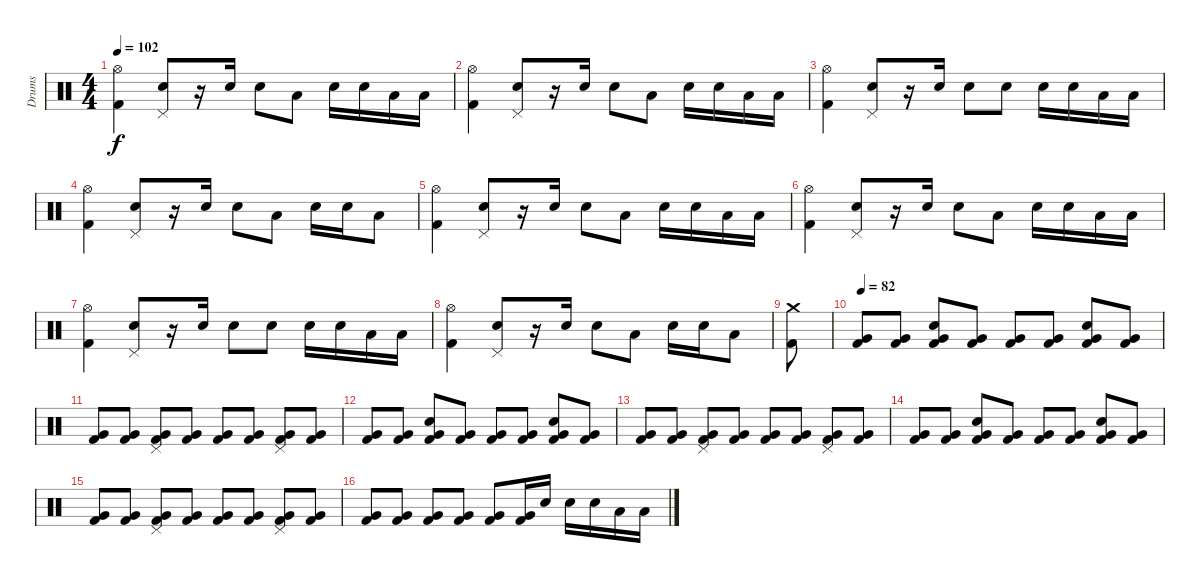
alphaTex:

\track ("Drums" "Drums") {instrument percussion}
\staff {score}
\articulation defaults
\ts (4 4)
\tempo 102
\clef neutral
\ks c
("Hi-Hat (open)" "Kick (hit) 2").4{dy f} ("Pedal Hi-Hat (hit)" "Electric Snare (hit)").8 r.16 "Electric Snare (hit)".16 "Electric Snare (hit)".8 "Low Tom (hit)".8 "Electric Snare (hit)".16 "Electric Snare (hit)".16 "Low Tom (hit)".16 "Low Tom (hit)".16 |
("Hi-Hat (open)" "Kick (hit) 2").4 ("Pedal Hi-Hat (hit)" "Electric Snare (hit)").8 r.16 "Electric Snare (hit)".16 "Electric Snare (hit)".8 "Low Tom (hit)".8 "Electric Snare (hit)".16 "Electric Snare (hit)".16 "Low Tom (hit)".16 "Low Tom (hit)".16 |
("Hi-Hat (open)" "Kick (hit) 2").4 ("Pedal Hi-Hat (hit)" "Electric Snare (hit)").8 r.16 "Electric Snare (hit)".16 "Electric Snare (hit)".8 "Electric Snare (hit)".8 "Electric Snare (hit)".16 "Electric Snare (hit)".16 "Low Tom (hit)".16 "Low Tom (hit)".16 |
("Hi-Hat (open)" "Kick (hit) 2").4 ("Pedal Hi-Hat (hit)" "Electric Snare (hit)").8 r.16 "Electric Snare (hit)".16 "Electric Snare (hit)".8 "Low Tom (hit)".8 "Electric Snare (hit)".16 "Electric Snare (hit)".16 "Low Tom (hit)".8 |
("Hi-Hat (open)" "Kick (hit) 2").4 ("Pedal Hi-Hat (hit)" "Electric Snare (hit)").8 r.16 "Electric Snare (hit)".16 "Electric Snare (hit)".8 "Low Tom (hit)".8 "Electric Snare (hit)".16 "Electric Snare (hit)".16 "Low Tom (hit)".16 "Low Tom (hit)".16 |
("Hi-Hat (open)" "Kick (hit) 2").4 ("Pedal Hi-Hat (hit)" "Electric Snare (hit)").8 r.16 "Electric Snare (hit)".16 "Electric Snare (hit)".8 "Low Tom (hit)".8 "Electric Snare (hit)".16 "Electric Snare (hit)".16 "Low Tom (hit)".16 "Low Tom (hit)".16 |
("Hi-Hat (open)" "Kick (hit) 2").4 ("Pedal Hi-Hat (hit)" "Electric Snare (hit)").8 r.16 "Electric Snare (hit)".16 "Electric Snare (hit)".8 "Electric Snare (hit)".8 "Electric Snare (hit)".16 "Electric Snare (hit)".16 "Low Tom (hit)".16 "Low Tom (hit)".16 |
("Hi-Hat (open)" "Kick (hit) 2").4 ("Pedal Hi-Hat (hit)" "Electric Snare (hit)").8 r.16 "Electric Snare (hit)".16 "Electric Snare (hit)".8 "Low Tom (hit)".8 "Electric Snare (hit)".16 "Electric Snare (hit)".16 "Low Tom (hit)".8 |
("Crash medium (hit)" "Kick (hit) 2").8 |
\tempo 82
("Kick (hit) 2" "Very Low Tom (hit)").8 ("Kick (hit) 2" "Very Low Tom (hit)").8 ("Electric Snare (hit)" "Kick (hit) 2" "Very Low Tom (hit)").8 ("Kick (hit) 2" "Very Low Tom (hit)").8 ("Kick (hit) 2" "Very Low Tom (hit)").8 ("Kick (hit) 2" "Very Low Tom (hit)").8 ("Electric Snare (hit)" "Kick (hit) 2" "Very Low Tom (hit)").8 ("Kick (hit) 2" "Very Low Tom (hit)").8 |
("Kick (hit) 2" "Very Low Tom (hit)").8 ("Kick (hit) 2" "Very Low Tom (hit)").8 ("Pedal Hi-Hat (hit)" "Kick (hit) 2" "Very Low Tom (hit)").8 ("Kick (hit) 2" "Very Low Tom (hit)").8 ("Kick (hit) 2" "Very Low Tom (hit)").8 ("Kick (hit) 2" "Very Low Tom (hit)").8 ("Pedal Hi-Hat (hit)" "Kick (hit) 2" "Very Low Tom (hit)").8 ("Kick (hit) 2" "Very Low Tom (hit)").8 |
("Kick (hit) 2" "Very Low Tom (hit)").8 ("Kick (hit) 2" "Very Low Tom (hit)").8 ("Electric Snare (hit)" "Kick (hit) 2" "Very Low Tom (hit)").8 ("Kick (hit) 2" "Very Low Tom (hit)").8 ("Kick (hit) 2" "Very Low Tom (hit)").8 ("Kick (hit) 2" "Very Low Tom (hit)").8 ("Electric Snare (hit)" "Kick (hit) 2" "Very Low Tom (hit)").8 ("Kick (hit) 2" "Very Low Tom (hit)").8 |
("Kick (hit) 2" "Very Low Tom (hit)").8 ("Kick (hit) 2" "Very Low Tom (hit)").8 ("Pedal Hi-Hat (hit)" "Kick (hit) 2" "Very Low Tom (hit)").8 ("Kick (hit) 2" "Very Low Tom (hit)").8 ("Kick (hit) 2" "Very Low Tom (hit)").8 ("Kick (hit) 2" "Very Low Tom (hit)").8 ("Pedal Hi-Hat (hit)" "Kick (hit) 2" "Very Low Tom (hit)").8 ("Kick (hit) 2" "Very Low Tom (hit)").8 |
("Kick (hit) 2" "Very Low Tom (hit)").8 ("Kick (hit) 2" "Very Low Tom (hit)").8 ("Electric Snare (hit)" "Kick (hit) 2" "Very Low Tom (hit)").8 ("Kick (hit) 2" "Very Low Tom (hit)").8 ("Kick (hit) 2" "Very Low Tom (hit)").8 ("Kick (hit) 2" "Very Low Tom (hit)").8 ("Electric Snare (hit)" "Kick (hit) 2" "Very Low Tom (hit)").8 ("Kick (hit) 2" "Very Low Tom (hit)").8 |
("Kick (hit) 2" "Very Low Tom (hit)").8 ("Kick (hit) 2" "Very Low Tom (hit)").8 ("Pedal Hi-Hat (hit)" "Kick (hit) 2" "Very Low Tom (hit)").8 ("Kick (hit) 2" "Very Low Tom (hit)").8 ("Kick (hit) 2" "Very Low Tom (hit)").8 ("Kick (hit) 2" "Very Low Tom (hit)").8 ("Pedal Hi-Hat (hit)" "Kick (hit) 2" "Very Low Tom (hit)").8 ("Kick (hit) 2" "Very Low Tom (hit)").8 |
("Kick (hit) 2" "Very Low Tom (hit)").8 ("Kick (hit) 2" "Very Low Tom (hit)").8 ("Kick (hit) 2" "Very Low Tom (hit)").8 ("Kick (hit) 2" "Very Low Tom (hit)").8 ("Kick (hit) 2" "Very Low Tom (hit)").8 ("Kick (hit) 2" "Very Low Tom (hit)").16 "Electric Snare (hit)".16 "Electric Snare (hit)".16 "Electric Snare (hit)".16 "Low Tom (hit)".16 "Low Tom (hit)".16
